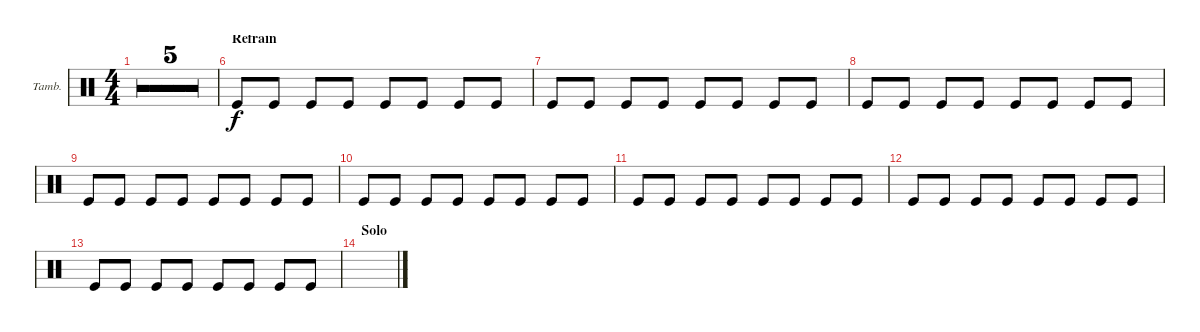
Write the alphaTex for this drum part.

\defaultSystemsLayout 4
\bracketExtendMode groupsimilarinstruments
\firstSystemTrackNameOrientation horizontal
\otherSystemsTrackNameOrientation horizontal
\track ("Tambourine" "Tamb.") {multiBarRest instrument percussion}
\staff {score}
\articulation defaults
\ts (4 4)
\tempo 120
\clef neutral
\ks c
|
|
|
|
|
\section ("" "Refrain")
"Kick (hit)".8 "Kick (hit)".8 "Kick (hit)".8 "Kick (hit)".8 "Kick (hit)".8 "Kick (hit)".8 "Kick (hit)".8 "Kick (hit)".8 |
"Kick (hit)".8 "Kick (hit)".8 "Kick (hit)".8 "Kick (hit)".8 "Kick (hit)".8 "Kick (hit)".8 "Kick (hit)".8 "Kick (hit)".8 |
"Kick (hit)".8 "Kick (hit)".8 "Kick (hit)".8 "Kick (hit)".8 "Kick (hit)".8 "Kick (hit)".8 "Kick (hit)".8 "Kick (hit)".8 |
"Kick (hit)".8 "Kick (hit)".8 "Kick (hit)".8 "Kick (hit)".8 "Kick (hit)".8 "Kick (hit)".8 "Kick (hit)".8 "Kick (hit)".8 |
"Kick (hit)".8 "Kick (hit)".8 "Kick (hit)".8 "Kick (hit)".8 "Kick (hit)".8 "Kick (hit)".8 "Kick (hit)".8 "Kick (hit)".8 |
"Kick (hit)".8 "Kick (hit)".8 "Kick (hit)".8 "Kick (hit)".8 "Kick (hit)".8 "Kick (hit)".8 "Kick (hit)".8 "Kick (hit)".8 |
"Kick (hit)".8 "Kick (hit)".8 "Kick (hit)".8 "Kick (hit)".8 "Kick (hit)".8 "Kick (hit)".8 "Kick (hit)".8 "Kick (hit)".8 |
"Kick (hit)".8 "Kick (hit)".8 "Kick (hit)".8 "Kick (hit)".8 "Kick (hit)".8 "Kick (hit)".8 "Kick (hit)".8 "Kick (hit)".8 |
\section ("" "Solo")
